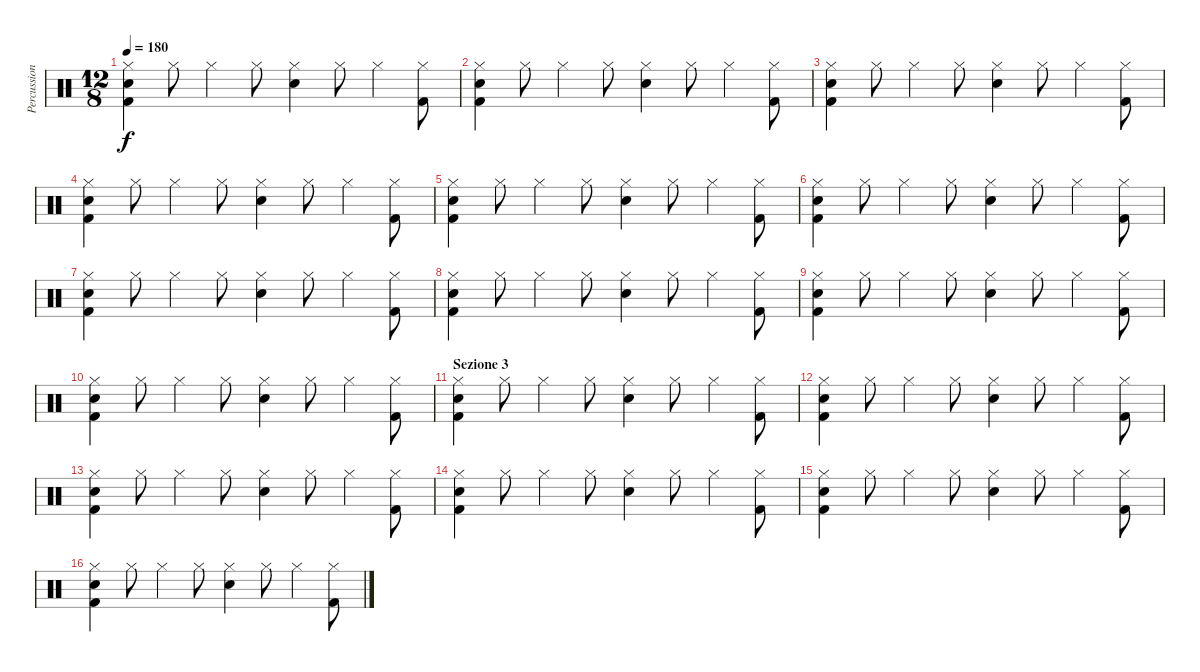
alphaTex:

\track ("Percussioni" "Percussion") {instrument percussion}
\staff {score}
\articulation defaults
\ts (12 8)
\tempo 180
\clef neutral
\ks c
("Hi-Hat (closed)" "Snare (hit) 2" "Kick (hit) 2").4{dy f} "Hi-Hat (closed)".8 "Hi-Hat (closed)".4 "Hi-Hat (closed)".8 ("Hi-Hat (closed)" "Snare (hit) 2").4 "Hi-Hat (closed)".8 "Hi-Hat (closed)".4 ("Hi-Hat (closed)" "Kick (hit) 2").8 |
("Hi-Hat (closed)" "Snare (hit) 2" "Kick (hit) 2").4 "Hi-Hat (closed)".8 "Hi-Hat (closed)".4 "Hi-Hat (closed)".8 ("Hi-Hat (closed)" "Snare (hit) 2").4 "Hi-Hat (closed)".8 "Hi-Hat (closed)".4 ("Hi-Hat (closed)" "Kick (hit) 2").8 |
("Hi-Hat (closed)" "Snare (hit) 2" "Kick (hit) 2").4 "Hi-Hat (closed)".8 "Hi-Hat (closed)".4 "Hi-Hat (closed)".8 ("Hi-Hat (closed)" "Snare (hit) 2").4 "Hi-Hat (closed)".8 "Hi-Hat (closed)".4 ("Hi-Hat (closed)" "Kick (hit) 2").8 |
("Hi-Hat (closed)" "Snare (hit) 2" "Kick (hit) 2").4 "Hi-Hat (closed)".8 "Hi-Hat (closed)".4 "Hi-Hat (closed)".8 ("Hi-Hat (closed)" "Snare (hit) 2").4 "Hi-Hat (closed)".8 "Hi-Hat (closed)".4 ("Hi-Hat (closed)" "Kick (hit) 2").8 |
("Hi-Hat (closed)" "Snare (hit) 2" "Kick (hit) 2").4 "Hi-Hat (closed)".8 "Hi-Hat (closed)".4 "Hi-Hat (closed)".8 ("Hi-Hat (closed)" "Snare (hit) 2").4 "Hi-Hat (closed)".8 "Hi-Hat (closed)".4 ("Hi-Hat (closed)" "Kick (hit) 2").8 |
("Hi-Hat (closed)" "Snare (hit) 2" "Kick (hit) 2").4 "Hi-Hat (closed)".8 "Hi-Hat (closed)".4 "Hi-Hat (closed)".8 ("Hi-Hat (closed)" "Snare (hit) 2").4 "Hi-Hat (closed)".8 "Hi-Hat (closed)".4 ("Hi-Hat (closed)" "Kick (hit) 2").8 |
("Hi-Hat (closed)" "Snare (hit) 2" "Kick (hit) 2").4 "Hi-Hat (closed)".8 "Hi-Hat (closed)".4 "Hi-Hat (closed)".8 ("Hi-Hat (closed)" "Snare (hit) 2").4 "Hi-Hat (closed)".8 "Hi-Hat (closed)".4 ("Hi-Hat (closed)" "Kick (hit) 2").8 |
("Hi-Hat (closed)" "Snare (hit) 2" "Kick (hit) 2").4 "Hi-Hat (closed)".8 "Hi-Hat (closed)".4 "Hi-Hat (closed)".8 ("Hi-Hat (closed)" "Snare (hit) 2").4 "Hi-Hat (closed)".8 "Hi-Hat (closed)".4 ("Hi-Hat (closed)" "Kick (hit) 2").8 |
("Hi-Hat (closed)" "Snare (hit) 2" "Kick (hit) 2").4 "Hi-Hat (closed)".8 "Hi-Hat (closed)".4 "Hi-Hat (closed)".8 ("Hi-Hat (closed)" "Snare (hit) 2").4 "Hi-Hat (closed)".8 "Hi-Hat (closed)".4 ("Hi-Hat (closed)" "Kick (hit) 2").8 |
("Hi-Hat (closed)" "Snare (hit) 2" "Kick (hit) 2").4 "Hi-Hat (closed)".8 "Hi-Hat (closed)".4 "Hi-Hat (closed)".8 ("Hi-Hat (closed)" "Snare (hit) 2").4 "Hi-Hat (closed)".8 "Hi-Hat (closed)".4 ("Hi-Hat (closed)" "Kick (hit) 2").8 |
\section ("" "Sezione 3")
("Hi-Hat (closed)" "Snare (hit) 2" "Kick (hit) 2").4 "Hi-Hat (closed)".8 "Hi-Hat (closed)".4 "Hi-Hat (closed)".8 ("Hi-Hat (closed)" "Snare (hit) 2").4 "Hi-Hat (closed)".8 "Hi-Hat (closed)".4 ("Hi-Hat (closed)" "Kick (hit) 2").8 |
("Hi-Hat (closed)" "Snare (hit) 2" "Kick (hit) 2").4 "Hi-Hat (closed)".8 "Hi-Hat (closed)".4 "Hi-Hat (closed)".8 ("Hi-Hat (closed)" "Snare (hit) 2").4 "Hi-Hat (closed)".8 "Hi-Hat (closed)".4 ("Hi-Hat (closed)" "Kick (hit) 2").8 |
("Hi-Hat (closed)" "Snare (hit) 2" "Kick (hit) 2").4 "Hi-Hat (closed)".8 "Hi-Hat (closed)".4 "Hi-Hat (closed)".8 ("Hi-Hat (closed)" "Snare (hit) 2").4 "Hi-Hat (closed)".8 "Hi-Hat (closed)".4 ("Hi-Hat (closed)" "Kick (hit) 2").8 |
("Hi-Hat (closed)" "Snare (hit) 2" "Kick (hit) 2").4 "Hi-Hat (closed)".8 "Hi-Hat (closed)".4 "Hi-Hat (closed)".8 ("Hi-Hat (closed)" "Snare (hit) 2").4 "Hi-Hat (closed)".8 "Hi-Hat (closed)".4 ("Hi-Hat (closed)" "Kick (hit) 2").8 |
("Hi-Hat (closed)" "Snare (hit) 2" "Kick (hit) 2").4 "Hi-Hat (closed)".8 "Hi-Hat (closed)".4 "Hi-Hat (closed)".8 ("Hi-Hat (closed)" "Snare (hit) 2").4 "Hi-Hat (closed)".8 "Hi-Hat (closed)".4 ("Hi-Hat (closed)" "Kick (hit) 2").8 |
("Hi-Hat (closed)" "Snare (hit) 2" "Kick (hit) 2").4 "Hi-Hat (closed)".8 "Hi-Hat (closed)".4 "Hi-Hat (closed)".8 ("Hi-Hat (closed)" "Snare (hit) 2").4 "Hi-Hat (closed)".8 "Hi-Hat (closed)".4 ("Hi-Hat (closed)" "Kick (hit) 2").8
